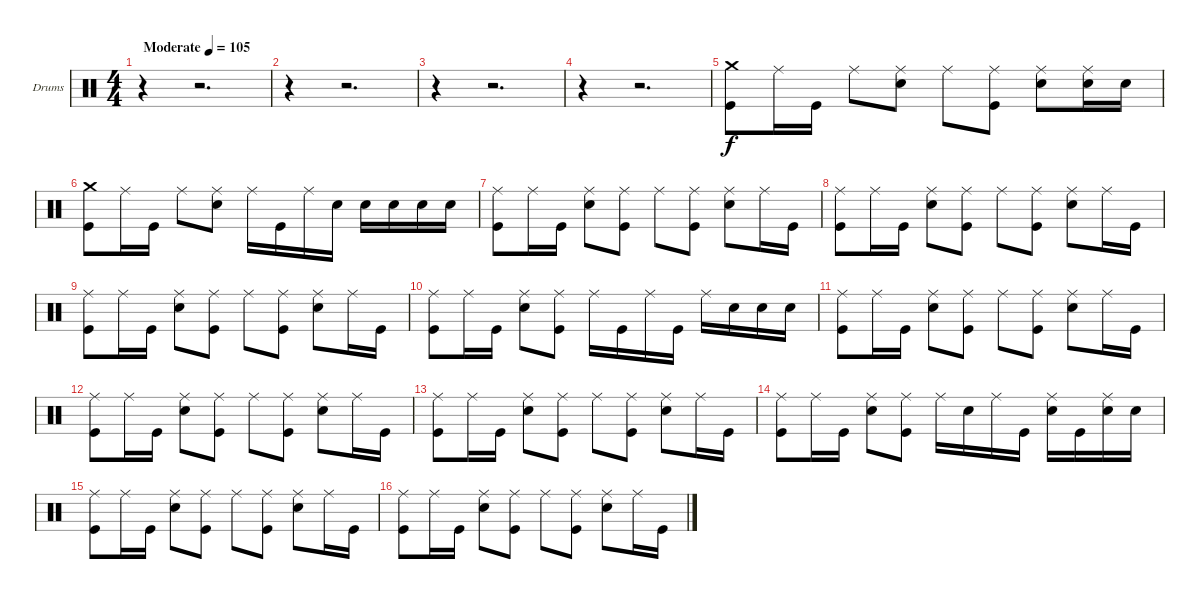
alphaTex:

\bracketExtendMode groupsimilarinstruments
\firstSystemTrackNameOrientation horizontal
\otherSystemsTrackNameOrientation horizontal
\track ("Drumkit" "Drums") {instrument percussion}
\staff {score}
\articulation defaults
\ts (4 4)
\beaming (8 2 2 2 2)
\tempo (105 "Moderate")
\clef neutral
\ks c
r.4{dy f} r.2{d} |
r.4 r.2{d} |
r.4 r.2{d} |
r.4 r.2{d} |
("Kick (hit)" "Crash medium (hit)").8 "Ride (middle)".16 "Kick (hit)".16 "Ride (middle)".8 ("Snare (hit) 2" "Ride (middle)").8 "Ride (middle)".8 ("Kick (hit)" "Ride (middle)").8 ("Snare (hit) 2" "Ride (middle)").8 ("Snare (hit) 2" "Ride (middle)").16 "Snare (hit) 2".16 |
("Kick (hit)" "Crash medium (hit)").8 "Ride (middle)".16 "Kick (hit)".16 "Ride (middle)".8 ("Snare (hit) 2" "Ride (middle)").8 "Ride (middle)".16 "Kick (hit)".16 "Ride (middle)".16 "Snare (hit) 2".16 "Snare (hit) 2".16 "Snare (hit) 2".16 "Snare (hit) 2".16 "Snare (hit) 2".16 |
("Kick (hit)" "Ride (middle)").8 "Ride (middle)".16 "Kick (hit)".16 ("Snare (hit) 2" "Ride (middle)").8 ("Kick (hit)" "Ride (middle)").8 "Ride (middle)".8 ("Kick (hit)" "Ride (middle)").8 ("Snare (hit) 2" "Ride (middle)").8 "Ride (middle)".16 "Kick (hit)".16 |
("Kick (hit)" "Ride (middle)").8 "Ride (middle)".16 "Kick (hit)".16 ("Snare (hit) 2" "Ride (middle)").8 ("Kick (hit)" "Ride (middle)").8 "Ride (middle)".8 ("Kick (hit)" "Ride (middle)").8 ("Snare (hit) 2" "Ride (middle)").8 "Ride (middle)".16 "Kick (hit)".16 |
("Kick (hit)" "Ride (middle)").8 "Ride (middle)".16 "Kick (hit)".16 ("Snare (hit) 2" "Ride (middle)").8 ("Kick (hit)" "Ride (middle)").8 "Ride (middle)".8 ("Kick (hit)" "Ride (middle)").8 ("Snare (hit) 2" "Ride (middle)").8 "Ride (middle)".16 "Kick (hit)".16 |
("Kick (hit)" "Ride (middle)").8 "Ride (middle)".16 "Kick (hit)".16 ("Snare (hit) 2" "Ride (middle)").8 ("Kick (hit)" "Ride (middle)").8 "Ride (middle)".16 "Kick (hit)".16 "Ride (middle)".16 "Kick (hit)".16 "Ride (middle)".16 "Snare (hit) 2".16 "Snare (hit) 2".16 "Snare (hit) 2".16 |
("Kick (hit)" "Ride (middle)").8 "Ride (middle)".16 "Kick (hit)".16 ("Snare (hit) 2" "Ride (middle)").8 ("Kick (hit)" "Ride (middle)").8 "Ride (middle)".8 ("Kick (hit)" "Ride (middle)").8 ("Snare (hit) 2" "Ride (middle)").8 "Ride (middle)".16 "Kick (hit)".16 |
("Kick (hit)" "Ride (middle)").8 "Ride (middle)".16 "Kick (hit)".16 ("Snare (hit) 2" "Ride (middle)").8 ("Kick (hit)" "Ride (middle)").8 "Ride (middle)".8 ("Kick (hit)" "Ride (middle)").8 ("Snare (hit) 2" "Ride (middle)").8 "Ride (middle)".16 "Kick (hit)".16 |
("Kick (hit)" "Ride (middle)").8 "Ride (middle)".16 "Kick (hit)".16 ("Snare (hit) 2" "Ride (middle)").8 ("Kick (hit)" "Ride (middle)").8 "Ride (middle)".8 ("Kick (hit)" "Ride (middle)").8 ("Snare (hit) 2" "Ride (middle)").8 "Ride (middle)".16 "Kick (hit)".16 |
("Kick (hit)" "Ride (middle)").8 "Ride (middle)".16 "Kick (hit)".16 ("Snare (hit) 2" "Ride (middle)").8 ("Kick (hit)" "Ride (middle)").8 "Ride (middle)".16 "Snare (hit) 2".16 "Ride (middle)".16 "Kick (hit)".16 ("Snare (hit) 2" "Ride (middle)").16 "Kick (hit)".16 ("Snare (hit) 2" "Ride (middle)").16 "Snare (hit) 2".16 |
("Kick (hit)" "Ride (middle)").8 "Ride (middle)".16 "Kick (hit)".16 ("Snare (hit) 2" "Ride (middle)").8 ("Kick (hit)" "Ride (middle)").8 "Ride (middle)".8 ("Kick (hit)" "Ride (middle)").8 ("Snare (hit) 2" "Ride (middle)").8 "Ride (middle)".16 "Kick (hit)".16 |
("Kick (hit)" "Ride (middle)").8 "Ride (middle)".16 "Kick (hit)".16 ("Snare (hit) 2" "Ride (middle)").8 ("Kick (hit)" "Ride (middle)").8 "Ride (middle)".8 ("Kick (hit)" "Ride (middle)").8 ("Snare (hit) 2" "Ride (middle)").8 "Ride (middle)".16 "Kick (hit)".16
